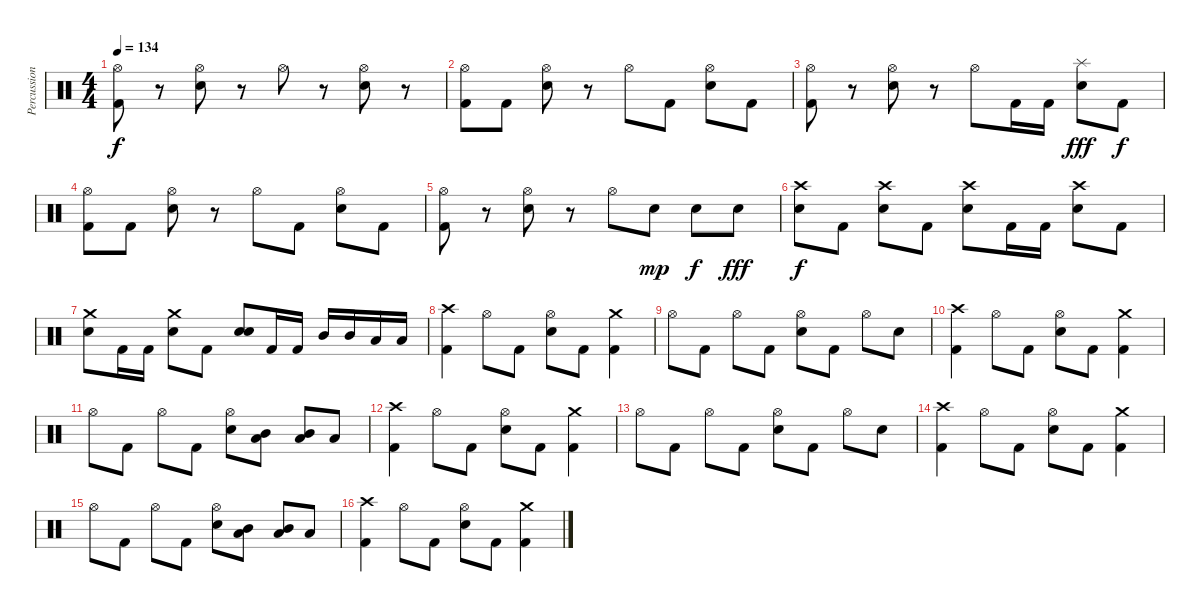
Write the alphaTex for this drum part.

\track ("Percussion" "Percussion") {instrument percussion}
\staff {score}
\articulation defaults
\ts (4 4)
\tempo 134
\clef neutral
\ks c
("Hi-Hat (open)" "Kick (hit) 2").8{dy f} r.8 ("Hi-Hat (open)" "Snare (hit) 2").8 r.8 "Hi-Hat (open)".8 r.8 ("Hi-Hat (open)" "Snare (hit) 2").8 r.8 |
("Hi-Hat (open)" "Kick (hit) 2").8 "Kick (hit) 2".8 ("Hi-Hat (open)" "Snare (hit) 2").8 r.8 "Hi-Hat (open)".8 "Kick (hit) 2".8 ("Hi-Hat (open)" "Snare (hit) 2").8 "Kick (hit) 2".8 |
("Hi-Hat (open)" "Kick (hit) 2").8 r.8 ("Hi-Hat (open)" "Snare (hit) 2").8 r.8 "Hi-Hat (open)".8 "Kick (hit) 2".16 "Kick (hit) 2".16 ("Splash (hit)" "Snare (hit) 2").8{dy fff} "Kick (hit) 2".8{dy f} |
("Hi-Hat (open)" "Kick (hit) 2").8 "Kick (hit) 2".8 ("Hi-Hat (open)" "Snare (hit) 2").8 r.8 "Hi-Hat (open)".8 "Kick (hit) 2".8 ("Hi-Hat (open)" "Snare (hit) 2").8 "Kick (hit) 2".8 |
("Hi-Hat (open)" "Kick (hit) 2").8 r.8 ("Hi-Hat (open)" "Snare (hit) 2").8 r.8 "Hi-Hat (open)".8 "Snare (hit) 2".8{dy mp} "Snare (hit) 2".8{dy f} "Snare (hit) 2".8{dy fff} |
("Crash high (hit)" "Snare (hit) 2").8{dy f} "Kick (hit) 2".8 ("Crash high (hit)" "Snare (hit) 2").8 "Kick (hit) 2".8 ("Crash high (hit)" "Snare (hit) 2").8 "Kick (hit) 2".16 "Kick (hit) 2".16 ("Crash high (hit)" "Snare (hit) 2").8 "Kick (hit) 2".8 |
("Crash medium (hit)" "Snare (hit) 2").8 "Kick (hit) 2".16 "Kick (hit) 2".16 ("Crash medium (hit)" "Snare (hit) 2").8 "Kick (hit) 2".8 ("Snare (hit) 2" "Snare (hit) 2").8{bd 240} "Kick (hit) 2".16 "Kick (hit) 2".16 "Mid Tom (hit)".16 "Mid Tom (hit)".16 "Low Tom (hit)".16 "Low Tom (hit)".16 |
("Crash high (hit)" "Kick (hit) 2").4 "Hi-Hat (open)".8 "Kick (hit) 2".8 ("Hi-Hat (open)" "Snare (hit) 2").8 "Kick (hit) 2".8 ("Crash medium (hit)" "Kick (hit) 2").4 |
"Hi-Hat (open)".8 "Kick (hit) 2".8 "Hi-Hat (open)".8 "Kick (hit) 2".8 ("Hi-Hat (open)" "Snare (hit) 2").8 "Kick (hit) 2".8 "Hi-Hat (open)".8 "Snare (hit) 2".8 |
("Crash high (hit)" "Kick (hit) 2").4 "Hi-Hat (open)".8 "Kick (hit) 2".8 ("Hi-Hat (open)" "Snare (hit) 2").8 "Kick (hit) 2".8 ("Crash medium (hit)" "Kick (hit) 2").4 |
"Hi-Hat (open)".8 "Kick (hit) 2".8 "Hi-Hat (open)".8 "Kick (hit) 2".8 ("Hi-Hat (open)" "Snare (hit) 2").8 ("Low Tom (hit)" "Mid Tom (hit)").8{bd 240} ("Low Tom (hit)" "Mid Tom (hit)").8{bd 240} "Low Floor Tom (hit)".8 |
("Crash high (hit)" "Kick (hit) 2").4 "Hi-Hat (open)".8 "Kick (hit) 2".8 ("Hi-Hat (open)" "Snare (hit) 2").8 "Kick (hit) 2".8 ("Crash medium (hit)" "Kick (hit) 2").4 |
"Hi-Hat (open)".8 "Kick (hit) 2".8 "Hi-Hat (open)".8 "Kick (hit) 2".8 ("Hi-Hat (open)" "Snare (hit) 2").8 "Kick (hit) 2".8 "Hi-Hat (open)".8 "Snare (hit) 2".8 |
("Crash high (hit)" "Kick (hit) 2").4 "Hi-Hat (open)".8 "Kick (hit) 2".8 ("Hi-Hat (open)" "Snare (hit) 2").8 "Kick (hit) 2".8 ("Crash medium (hit)" "Kick (hit) 2").4 |
"Hi-Hat (open)".8 "Kick (hit) 2".8 "Hi-Hat (open)".8 "Kick (hit) 2".8 ("Hi-Hat (open)" "Snare (hit) 2").8 ("Low Tom (hit)" "Mid Tom (hit)").8{bd 240} ("Low Tom (hit)" "Mid Tom (hit)").8{bd 240} "Low Floor Tom (hit)".8 |
("Crash high (hit)" "Kick (hit) 2").4 "Hi-Hat (open)".8 "Kick (hit) 2".8 ("Hi-Hat (open)" "Snare (hit) 2").8 "Kick (hit) 2".8 ("Crash medium (hit)" "Kick (hit) 2").4
